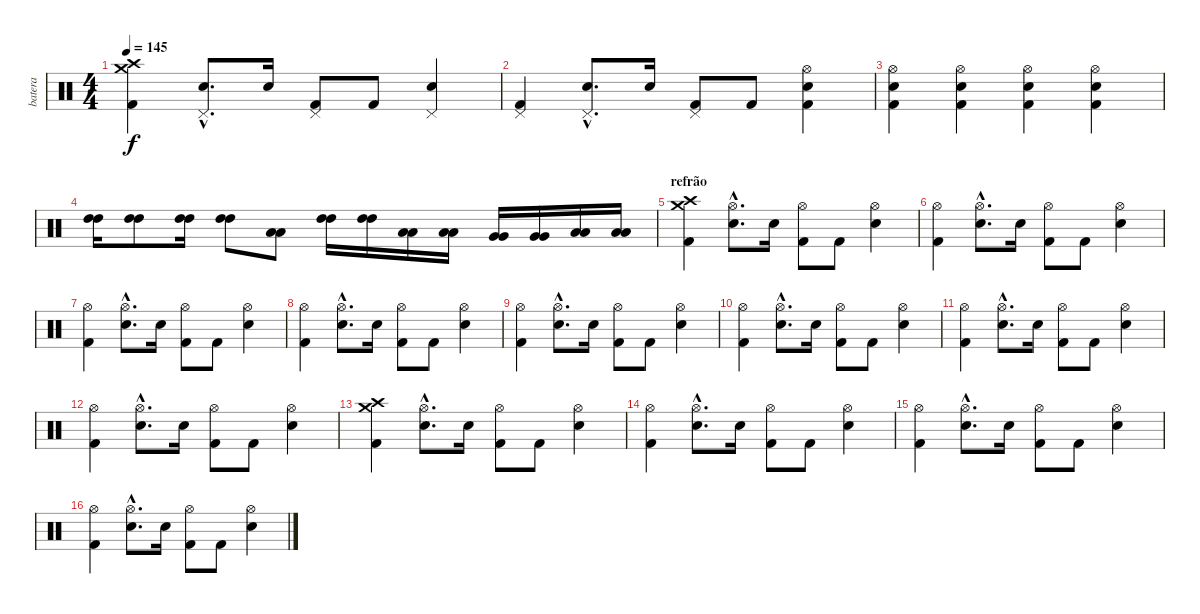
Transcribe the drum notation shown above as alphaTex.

\track ("batera" "batera") {instrument percussion}
\staff {score}
\articulation defaults
\ts (4 4)
\tempo 145
\clef neutral
\ks c
("Crash high (hit)" "Crash medium (hit)" "Kick (hit) 2").4{dy f} ("Snare (hit) 2"{hac} "Pedal Hi-Hat (hit)"{hac}).8{d} "Snare (hit) 2".16 ("Kick (hit) 2" "Pedal Hi-Hat (hit)").8 "Kick (hit) 2".8 ("Snare (hit) 2" "Pedal Hi-Hat (hit)").4 |
("Kick (hit) 2" "Pedal Hi-Hat (hit)").4 ("Snare (hit) 2"{hac} "Pedal Hi-Hat (hit)"{hac}).8{d} "Snare (hit) 2".16 ("Kick (hit) 2" "Pedal Hi-Hat (hit)").8 "Kick (hit) 2".8 ("Snare (hit) 2" "Kick (hit) 2" "Hi-Hat (open)").4 |
("Snare (hit) 2" "Kick (hit) 2" "Hi-Hat (open)").4 ("Snare (hit) 2" "Kick (hit) 2" "Hi-Hat (open)").4 ("Snare (hit) 2" "Kick (hit) 2" "Hi-Hat (open)").4 ("Snare (hit) 2" "Kick (hit) 2" "Hi-Hat (open)").4 |
("High Tom (hit)" "High Tom (hit)").16 ("High Tom (hit)" "High Tom (hit)").8 ("High Tom (hit)" "High Tom (hit)").16 ("High Tom (hit)" "High Tom (hit)").8 ("Low Tom (hit)" "Low Tom (hit)").8 ("High Tom (hit)" "High Tom (hit)").16 ("High Tom (hit)" "High Tom (hit)").16 ("Low Tom (hit)" "Low Tom (hit)").16 ("Low Tom (hit)" "Low Tom (hit)").16 ("Very Low Tom (hit)" "Very Low Tom (hit)").16 ("Very Low Tom (hit)" "Very Low Tom (hit)").16 ("Low Floor Tom (hit)" "Low Floor Tom (hit)").16 ("Low Floor Tom (hit)" "Low Floor Tom (hit)").16 |
\section ("" "refrão")
("Crash high (hit)" "Crash medium (hit)" "Kick (hit) 2").4 ("Snare (hit) 2"{hac} "Hi-Hat (open)"{hac}).8{d} "Snare (hit) 2".16 ("Kick (hit) 2" "Hi-Hat (open)").8 "Kick (hit) 2".8 ("Snare (hit) 2" "Hi-Hat (open)").4 |
("Kick (hit) 2" "Hi-Hat (open)").4 ("Snare (hit) 2"{hac} "Hi-Hat (open)"{hac}).8{d} "Snare (hit) 2".16 ("Kick (hit) 2" "Hi-Hat (open)").8 "Kick (hit) 2".8 ("Snare (hit) 2" "Hi-Hat (open)").4 |
("Kick (hit) 2" "Hi-Hat (open)").4 ("Snare (hit) 2"{hac} "Hi-Hat (open)"{hac}).8{d} "Snare (hit) 2".16 ("Kick (hit) 2" "Hi-Hat (open)").8 "Kick (hit) 2".8 ("Snare (hit) 2" "Hi-Hat (open)").4 |
("Kick (hit) 2" "Hi-Hat (open)").4 ("Snare (hit) 2"{hac} "Hi-Hat (open)"{hac}).8{d} "Snare (hit) 2".16 ("Kick (hit) 2" "Hi-Hat (open)").8 "Kick (hit) 2".8 ("Snare (hit) 2" "Hi-Hat (open)").4 |
("Kick (hit) 2" "Hi-Hat (open)").4 ("Snare (hit) 2"{hac} "Hi-Hat (open)"{hac}).8{d} "Snare (hit) 2".16 ("Kick (hit) 2" "Hi-Hat (open)").8 "Kick (hit) 2".8 ("Snare (hit) 2" "Hi-Hat (open)").4 |
("Kick (hit) 2" "Hi-Hat (open)").4 ("Snare (hit) 2"{hac} "Hi-Hat (open)"{hac}).8{d} "Snare (hit) 2".16 ("Kick (hit) 2" "Hi-Hat (open)").8 "Kick (hit) 2".8 ("Snare (hit) 2" "Hi-Hat (open)").4 |
("Kick (hit) 2" "Hi-Hat (open)").4 ("Snare (hit) 2"{hac} "Hi-Hat (open)"{hac}).8{d} "Snare (hit) 2".16 ("Kick (hit) 2" "Hi-Hat (open)").8 "Kick (hit) 2".8 ("Snare (hit) 2" "Hi-Hat (open)").4 |
("Kick (hit) 2" "Hi-Hat (open)").4 ("Snare (hit) 2"{hac} "Hi-Hat (open)"{hac}).8{d} "Snare (hit) 2".16 ("Kick (hit) 2" "Hi-Hat (open)").8 "Kick (hit) 2".8 ("Snare (hit) 2" "Hi-Hat (open)").4 |
("Crash high (hit)" "Crash medium (hit)" "Kick (hit) 2").4 ("Snare (hit) 2"{hac} "Hi-Hat (open)"{hac}).8{d} "Snare (hit) 2".16 ("Kick (hit) 2" "Hi-Hat (open)").8 "Kick (hit) 2".8 ("Snare (hit) 2" "Hi-Hat (open)").4 |
("Kick (hit) 2" "Hi-Hat (open)").4 ("Snare (hit) 2"{hac} "Hi-Hat (open)"{hac}).8{d} "Snare (hit) 2".16 ("Kick (hit) 2" "Hi-Hat (open)").8 "Kick (hit) 2".8 ("Snare (hit) 2" "Hi-Hat (open)").4 |
("Kick (hit) 2" "Hi-Hat (open)").4 ("Snare (hit) 2"{hac} "Hi-Hat (open)"{hac}).8{d} "Snare (hit) 2".16 ("Kick (hit) 2" "Hi-Hat (open)").8 "Kick (hit) 2".8 ("Snare (hit) 2" "Hi-Hat (open)").4 |
("Kick (hit) 2" "Hi-Hat (open)").4 ("Snare (hit) 2"{hac} "Hi-Hat (open)"{hac}).8{d} "Snare (hit) 2".16 ("Kick (hit) 2" "Hi-Hat (open)").8 "Kick (hit) 2".8 ("Snare (hit) 2" "Hi-Hat (open)").4
